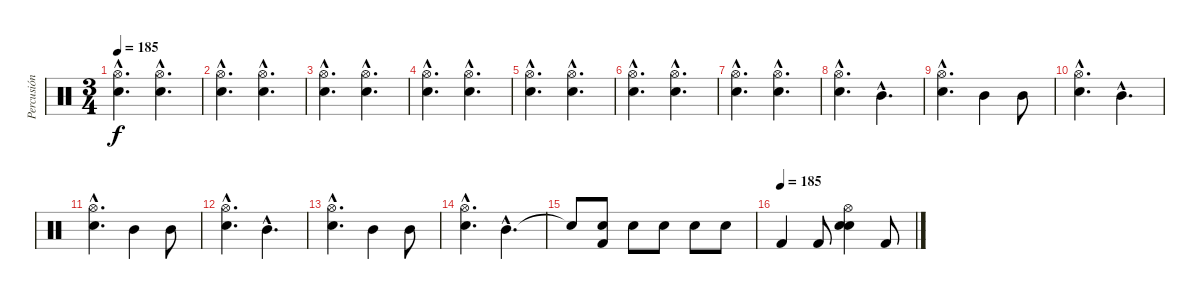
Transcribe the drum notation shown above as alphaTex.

\track ("Percusión" "Percusión") {instrument percussion}
\staff {score}
\articulation defaults
\ts (3 4)
\tempo 185
\clef neutral
\ks c
("Snare (hit) 2"{hac} "Hi-Hat (open)"{hac}).4{d dy f} ("Snare (hit) 2"{hac} "Hi-Hat (open)"{hac}).4{d} |
("Snare (hit) 2"{hac} "Hi-Hat (open)"{hac}).4{d} ("Snare (hit) 2"{hac} "Hi-Hat (open)"{hac}).4{d} |
("Snare (hit) 2"{hac} "Hi-Hat (open)"{hac}).4{d} ("Snare (hit) 2"{hac} "Hi-Hat (open)"{hac}).4{d} |
("Snare (hit) 2"{hac} "Hi-Hat (open)"{hac}).4{d} ("Snare (hit) 2"{hac} "Hi-Hat (open)"{hac}).4{d} |
("Snare (hit) 2"{hac} "Hi-Hat (open)"{hac}).4{d} ("Snare (hit) 2"{hac} "Hi-Hat (open)"{hac}).4{d} |
("Snare (hit) 2"{hac} "Hi-Hat (open)"{hac}).4{d} ("Snare (hit) 2"{hac} "Hi-Hat (open)"{hac}).4{d} |
("Snare (hit) 2"{hac} "Hi-Hat (open)"{hac}).4{d} ("Snare (hit) 2"{hac} "Hi-Hat (open)"{hac}).4{d} |
("Snare (hit) 2"{hac} "Hi-Hat (open)"{hac}).4{d} "Mid Tom (hit)"{hac}.4{d} |
("Snare (hit) 2"{hac} "Hi-Hat (open)"{hac}).4{d} "Mid Tom (hit)".4 "Mid Tom (hit)".8 |
("Snare (hit) 2"{hac} "Hi-Hat (open)"{hac}).4{d} "Mid Tom (hit)"{hac}.4{d} |
("Snare (hit) 2"{hac} "Hi-Hat (open)"{hac}).4{d} "Mid Tom (hit)".4 "Mid Tom (hit)".8 |
("Snare (hit) 2"{hac} "Hi-Hat (open)"{hac}).4{d} "Mid Tom (hit)"{hac}.4{d} |
("Snare (hit) 2"{hac} "Hi-Hat (open)"{hac}).4{d} "Mid Tom (hit)".4 "Mid Tom (hit)".8 |
("Snare (hit) 2"{hac} "Hi-Hat (open)"{hac}).4{d} "Mid Tom (hit)"{hac}.4{d} |
"Snare (hit) 2"{t}.8 ("Electric Snare (hit)" "Kick (hit) 2").8 "Electric Snare (hit)".8 "Electric Snare (hit)".8 "Electric Snare (hit)".8 "Electric Snare (hit)".8 |
\tempo (185)
"Kick (hit) 2".4 "Kick (hit) 2".8 ("Hi-Hat (open)" "Electric Snare (hit)" "Snare (hit) 2").4 "Kick (hit) 2".8
